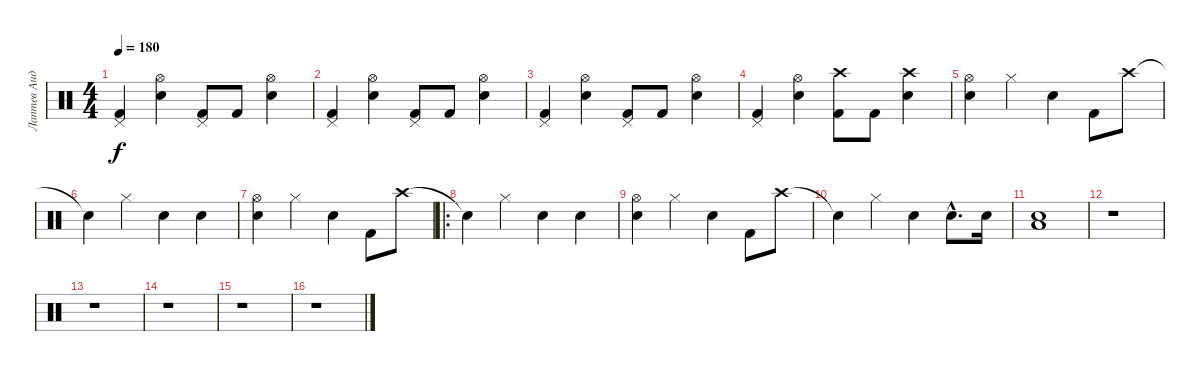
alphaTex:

\track ("Лаптев Андрей" "Лаптев Анд") {instrument percussion}
\staff {score}
\articulation defaults
\ts (4 4)
\tempo 180
\clef neutral
\ks c
("Kick (hit) 2" "Pedal Hi-Hat (hit)").4{dy f} ("Snare (hit) 2" "Hi-Hat (open)").4 ("Kick (hit) 2" "Pedal Hi-Hat (hit)").8 "Kick (hit) 2".8 ("Snare (hit) 2" "Hi-Hat (open)").4 |
("Kick (hit) 2" "Pedal Hi-Hat (hit)").4 ("Snare (hit) 2" "Hi-Hat (open)").4 ("Kick (hit) 2" "Pedal Hi-Hat (hit)").8 "Kick (hit) 2".8 ("Snare (hit) 2" "Hi-Hat (open)").4 |
("Kick (hit) 2" "Pedal Hi-Hat (hit)").4 ("Snare (hit) 2" "Hi-Hat (open)").4 ("Kick (hit) 2" "Pedal Hi-Hat (hit)").8 "Kick (hit) 2".8 ("Snare (hit) 2" "Hi-Hat (open)").4 |
("Kick (hit) 2" "Pedal Hi-Hat (hit)").4 ("Snare (hit) 2" "Hi-Hat (open)").4 ("Kick (hit) 2" "Crash high (hit)").8 "Kick (hit) 2".8 ("Snare (hit) 2" "Crash high (hit)").4 |
("Snare (hit) 2" "Hi-Hat (open)").4 "Hi-Hat (closed)".4 "Snare (hit) 2".4 "Kick (hit) 2".8 "Crash high (hit)".8 |
"Snare (hit)"{t}.4 "Hi-Hat (closed)".4 "Snare (hit) 2".4 "Snare (hit) 2".4 |
("Snare (hit) 2" "Hi-Hat (open)").4 "Hi-Hat (closed)".4 "Snare (hit) 2".4 "Kick (hit) 2".8 "Crash high (hit)".8 |
\ro "Snare (hit)"{t}.4 "Hi-Hat (closed)".4 "Snare (hit) 2".4 "Snare (hit) 2".4
|
("Snare (hit) 2" "Hi-Hat (open)").4 "Hi-Hat (closed)".4 "Snare (hit) 2".4 "Kick (hit) 2".8 "Crash high (hit)".8 |
"Snare (hit)"{t}.4 "Hi-Hat (closed)".4 "Snare (hit) 2".4 "Snare (hit) 2"{hac}.8{d} "Snare (hit) 2".16 |
("Electric Snare (hit)" "Low Tom (hit)").1 |
r.1 |
r.1 |
r.1 |
r.1 |
r.1
